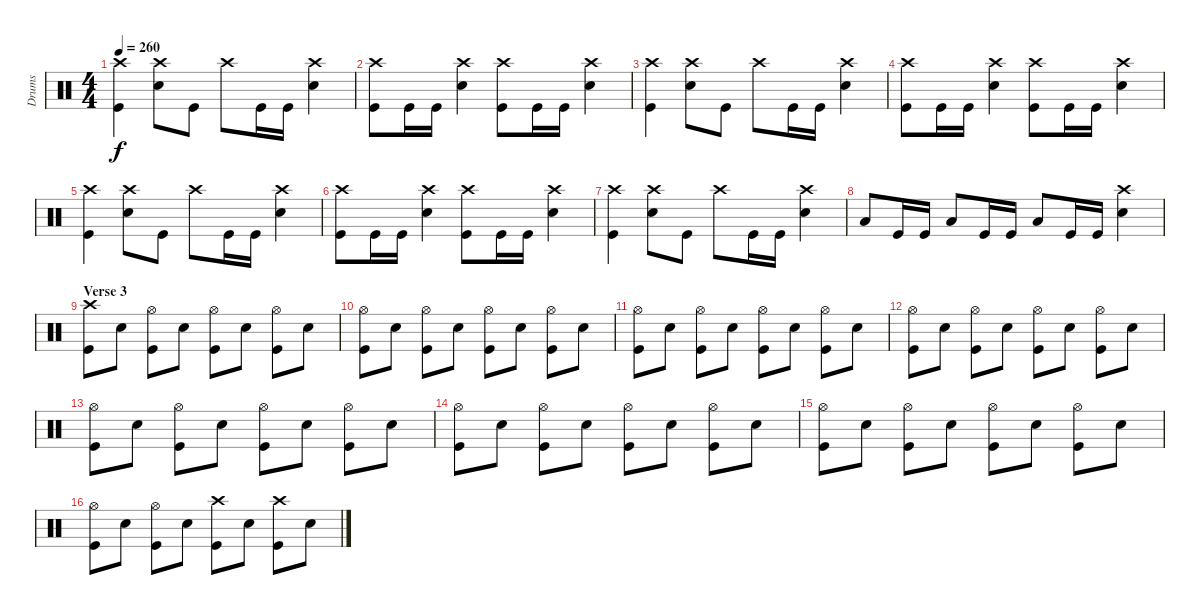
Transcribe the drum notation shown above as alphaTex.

\track ("Drums" "Drums") {instrument percussion}
\staff {score}
\articulation defaults
\ts (4 4)
\tempo 260
\clef neutral
\ks c
("Kick (hit)" "Crash high (hit)").4{dy f} ("Snare (hit) 2" "Crash high (hit)").8 "Kick (hit)".8 "Crash high (hit)".8 "Kick (hit)".16 "Kick (hit)".16 ("Snare (hit) 2" "Crash high (hit)").4 |
("Kick (hit)" "Crash high (hit)").8 "Kick (hit)".16 "Kick (hit)".16 ("Snare (hit) 2" "Crash high (hit)").4 ("Kick (hit)" "Crash high (hit)").8 "Kick (hit)".16 "Kick (hit)".16 ("Snare (hit) 2" "Crash high (hit)").4 |
("Kick (hit)" "Crash high (hit)").4 ("Snare (hit) 2" "Crash high (hit)").8 "Kick (hit)".8 "Crash high (hit)".8 "Kick (hit)".16 "Kick (hit)".16 ("Snare (hit) 2" "Crash high (hit)").4 |
("Kick (hit)" "Crash high (hit)").8 "Kick (hit)".16 "Kick (hit)".16 ("Snare (hit) 2" "Crash high (hit)").4 ("Kick (hit)" "Crash high (hit)").8 "Kick (hit)".16 "Kick (hit)".16 ("Snare (hit) 2" "Crash high (hit)").4 |
("Kick (hit)" "Crash high (hit)").4 ("Snare (hit) 2" "Crash high (hit)").8 "Kick (hit)".8 "Crash high (hit)".8 "Kick (hit)".16 "Kick (hit)".16 ("Snare (hit) 2" "Crash high (hit)").4 |
("Kick (hit)" "Crash high (hit)").8 "Kick (hit)".16 "Kick (hit)".16 ("Snare (hit) 2" "Crash high (hit)").4 ("Kick (hit)" "Crash high (hit)").8 "Kick (hit)".16 "Kick (hit)".16 ("Snare (hit) 2" "Crash high (hit)").4 |
("Kick (hit)" "Crash high (hit)").4 ("Snare (hit) 2" "Crash high (hit)").8 "Kick (hit)".8 "Crash high (hit)".8 "Kick (hit)".16 "Kick (hit)".16 ("Snare (hit) 2" "Crash high (hit)").4 |
"Low Floor Tom (hit)".8 "Kick (hit)".16 "Kick (hit)".16 "Low Floor Tom (hit)".8 "Kick (hit)".16 "Kick (hit)".16 "Low Floor Tom (hit)".8 "Kick (hit)".16 "Kick (hit)".16 ("Snare (hit) 2" "Crash high (hit)").4 |
\section ("" "Verse 3")
("Kick (hit)" "Crash high (hit)").8 "Snare (hit) 2".8 ("Kick (hit)" "Hi-Hat (open)").8 "Snare (hit) 2".8 ("Kick (hit)" "Hi-Hat (open)").8 "Snare (hit) 2".8 ("Kick (hit)" "Hi-Hat (open)").8 "Snare (hit) 2".8 |
("Kick (hit)" "Hi-Hat (open)").8 "Snare (hit) 2".8 ("Kick (hit)" "Hi-Hat (open)").8 "Snare (hit) 2".8 ("Kick (hit)" "Hi-Hat (open)").8 "Snare (hit) 2".8 ("Kick (hit)" "Hi-Hat (open)").8 "Snare (hit) 2".8 |
("Kick (hit)" "Hi-Hat (open)").8 "Snare (hit) 2".8 ("Kick (hit)" "Hi-Hat (open)").8 "Snare (hit) 2".8 ("Kick (hit)" "Hi-Hat (open)").8 "Snare (hit) 2".8 ("Kick (hit)" "Hi-Hat (open)").8 "Snare (hit) 2".8 |
("Kick (hit)" "Hi-Hat (open)").8 "Snare (hit) 2".8 ("Kick (hit)" "Hi-Hat (open)").8 "Snare (hit) 2".8 ("Kick (hit)" "Hi-Hat (open)").8 "Snare (hit) 2".8 ("Kick (hit)" "Hi-Hat (open)").8 "Snare (hit) 2".8 |
("Kick (hit)" "Hi-Hat (open)").8 "Snare (hit) 2".8 ("Kick (hit)" "Hi-Hat (open)").8 "Snare (hit) 2".8 ("Kick (hit)" "Hi-Hat (open)").8 "Snare (hit) 2".8 ("Kick (hit)" "Hi-Hat (open)").8 "Snare (hit) 2".8 |
("Kick (hit)" "Hi-Hat (open)").8 "Snare (hit) 2".8 ("Kick (hit)" "Hi-Hat (open)").8 "Snare (hit) 2".8 ("Kick (hit)" "Hi-Hat (open)").8 "Snare (hit) 2".8 ("Kick (hit)" "Hi-Hat (open)").8 "Snare (hit) 2".8 |
("Kick (hit)" "Hi-Hat (open)").8 "Snare (hit) 2".8 ("Kick (hit)" "Hi-Hat (open)").8 "Snare (hit) 2".8 ("Kick (hit)" "Hi-Hat (open)").8 "Snare (hit) 2".8 ("Kick (hit)" "Hi-Hat (open)").8 "Snare (hit) 2".8 |
("Kick (hit)" "Hi-Hat (open)").8 "Snare (hit) 2".8 ("Kick (hit)" "Hi-Hat (open)").8 "Snare (hit) 2".8 ("Kick (hit)" "Crash high (hit)").8 "Snare (hit) 2".8 ("Kick (hit)" "Crash high (hit)").8 "Snare (hit) 2".8
